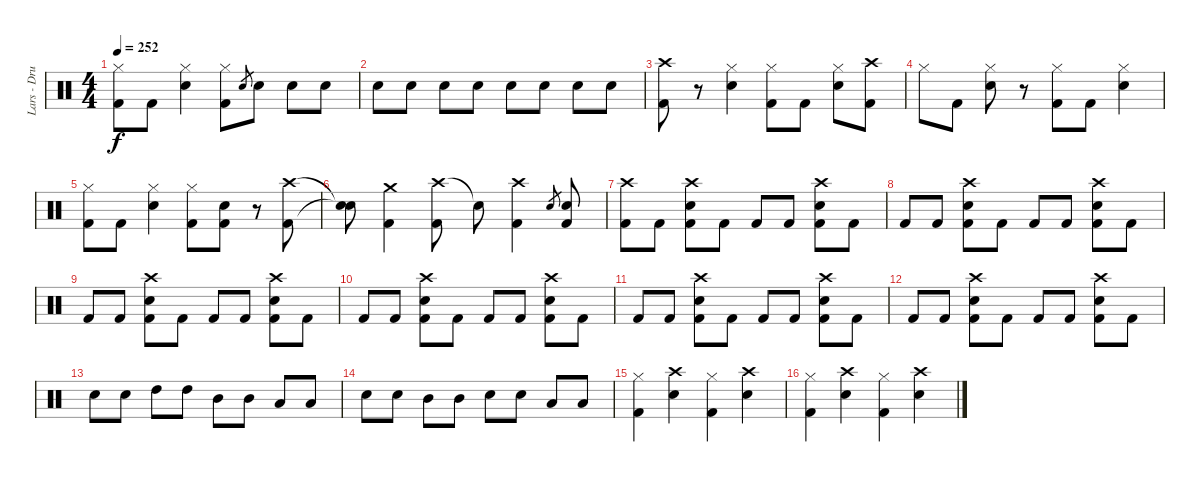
\track ("Lars - Drums" "Lars - Dru") {instrument percussion}
\staff {score}
\articulation defaults
\ts (4 4)
\tempo 252
\clef neutral
\ks c
("Hi-Hat (closed)" "Kick (hit) 2").8{dy f} "Kick (hit) 2".8 ("Hi-Hat (closed)" "Electric Snare (hit)").4 ("Hi-Hat (closed)" "Kick (hit) 2").8 "Electric Snare (hit)"{sl}.8{gr} "Electric Snare (hit)".8 "Electric Snare (hit)".8 "Electric Snare (hit)".8 |
"Electric Snare (hit)".8 "Electric Snare (hit)".8 "Electric Snare (hit)".8 "Electric Snare (hit)".8 "Electric Snare (hit)".8 "Electric Snare (hit)".8 "Electric Snare (hit)".8 "Electric Snare (hit)".8 |
("Crash high (hit)" "Kick (hit) 2").8 r.8 ("Hi-Hat (closed)" "Electric Snare (hit)").4 ("Hi-Hat (closed)" "Kick (hit) 2").8 "Kick (hit) 2".8 ("Hi-Hat (closed)" "Electric Snare (hit)").8 ("Crash high (hit)" "Kick (hit) 2").8 |
"Hi-Hat (closed)".8 "Kick (hit) 2".8 ("Hi-Hat (closed)" "Electric Snare (hit)").8 r.8 ("Hi-Hat (closed)" "Kick (hit) 2").8 "Kick (hit) 2".8 ("Hi-Hat (closed)" "Electric Snare (hit)").4 |
("Hi-Hat (closed)" "Kick (hit) 2").8 "Kick (hit) 2".8 ("Hi-Hat (closed)" "Electric Snare (hit)").4 ("Hi-Hat (closed)" "Kick (hit) 2").8 ("Electric Snare (hit)" "Kick (hit) 2").8 r.8 ("Crash high (hit)" "Kick (hit) 2").8 |
("Snare (hit)"{t} "Snare (hit)"{t}).8 ("Crash medium (hit)" "Kick (hit) 2").4 ("Crash high (hit)" "Kick (hit) 2").8 "Snare (hit)"{t}.8 ("Crash high (hit)" "Kick (hit) 2").4 "Electric Snare (hit)".8{gr} ("Electric Snare (hit)" "Kick (hit) 2").8 |
("Crash high (hit)" "Kick (hit) 2").8 "Kick (hit) 2".8 ("Crash high (hit)" "Electric Snare (hit)" "Kick (hit) 2").8 "Kick (hit) 2".8 "Kick (hit) 2".8 "Kick (hit) 2".8 ("Crash high (hit)" "Electric Snare (hit)" "Kick (hit) 2").8 "Kick (hit) 2".8 |
"Kick (hit) 2".8 "Kick (hit) 2".8 ("Crash high (hit)" "Electric Snare (hit)" "Kick (hit) 2").8 "Kick (hit) 2".8 "Kick (hit) 2".8 "Kick (hit) 2".8 ("Crash high (hit)" "Electric Snare (hit)" "Kick (hit) 2").8 "Kick (hit) 2".8 |
"Kick (hit) 2".8 "Kick (hit) 2".8 ("Crash high (hit)" "Electric Snare (hit)" "Kick (hit) 2").8 "Kick (hit) 2".8 "Kick (hit) 2".8 "Kick (hit) 2".8 ("Crash high (hit)" "Electric Snare (hit)" "Kick (hit) 2").8 "Kick (hit) 2".8 |
"Kick (hit) 2".8 "Kick (hit) 2".8 ("Crash high (hit)" "Electric Snare (hit)" "Kick (hit) 2").8 "Kick (hit) 2".8 "Kick (hit) 2".8 "Kick (hit) 2".8 ("Crash high (hit)" "Electric Snare (hit)" "Kick (hit) 2").8 "Kick (hit) 2".8 |
"Kick (hit) 2".8 "Kick (hit) 2".8 ("Crash high (hit)" "Electric Snare (hit)" "Kick (hit) 2").8 "Kick (hit) 2".8 "Kick (hit) 2".8 "Kick (hit) 2".8 ("Crash high (hit)" "Electric Snare (hit)" "Kick (hit) 2").8 "Kick (hit) 2".8 |
"Kick (hit) 2".8 "Kick (hit) 2".8 ("Crash high (hit)" "Electric Snare (hit)" "Kick (hit) 2").8 "Kick (hit) 2".8 "Kick (hit) 2".8 "Kick (hit) 2".8 ("Crash high (hit)" "Electric Snare (hit)" "Kick (hit) 2").8 "Kick (hit) 2".8 |
"Electric Snare (hit)".8 "Electric Snare (hit)".8 "High Tom (hit)".8 "High Tom (hit)".8 "Mid Tom (hit)".8 "Mid Tom (hit)".8 "Low Tom (hit)".8 "Low Tom (hit)".8 |
"Electric Snare (hit)".8 "Electric Snare (hit)".8 "Mid Tom (hit)".8 "Mid Tom (hit)".8 "Electric Snare (hit)".8 "Electric Snare (hit)".8 "Low Tom (hit)".8 "Low Tom (hit)".8 |
("Hi-Hat (closed)" "Kick (hit) 2").4 ("Crash high (hit)" "Electric Snare (hit)").4 ("Hi-Hat (closed)" "Kick (hit) 2").4 ("Crash high (hit)" "Electric Snare (hit)").4 |
("Hi-Hat (closed)" "Kick (hit) 2").4 ("Crash high (hit)" "Electric Snare (hit)").4 ("Hi-Hat (closed)" "Kick (hit) 2").4 ("Crash high (hit)" "Electric Snare (hit)").4
